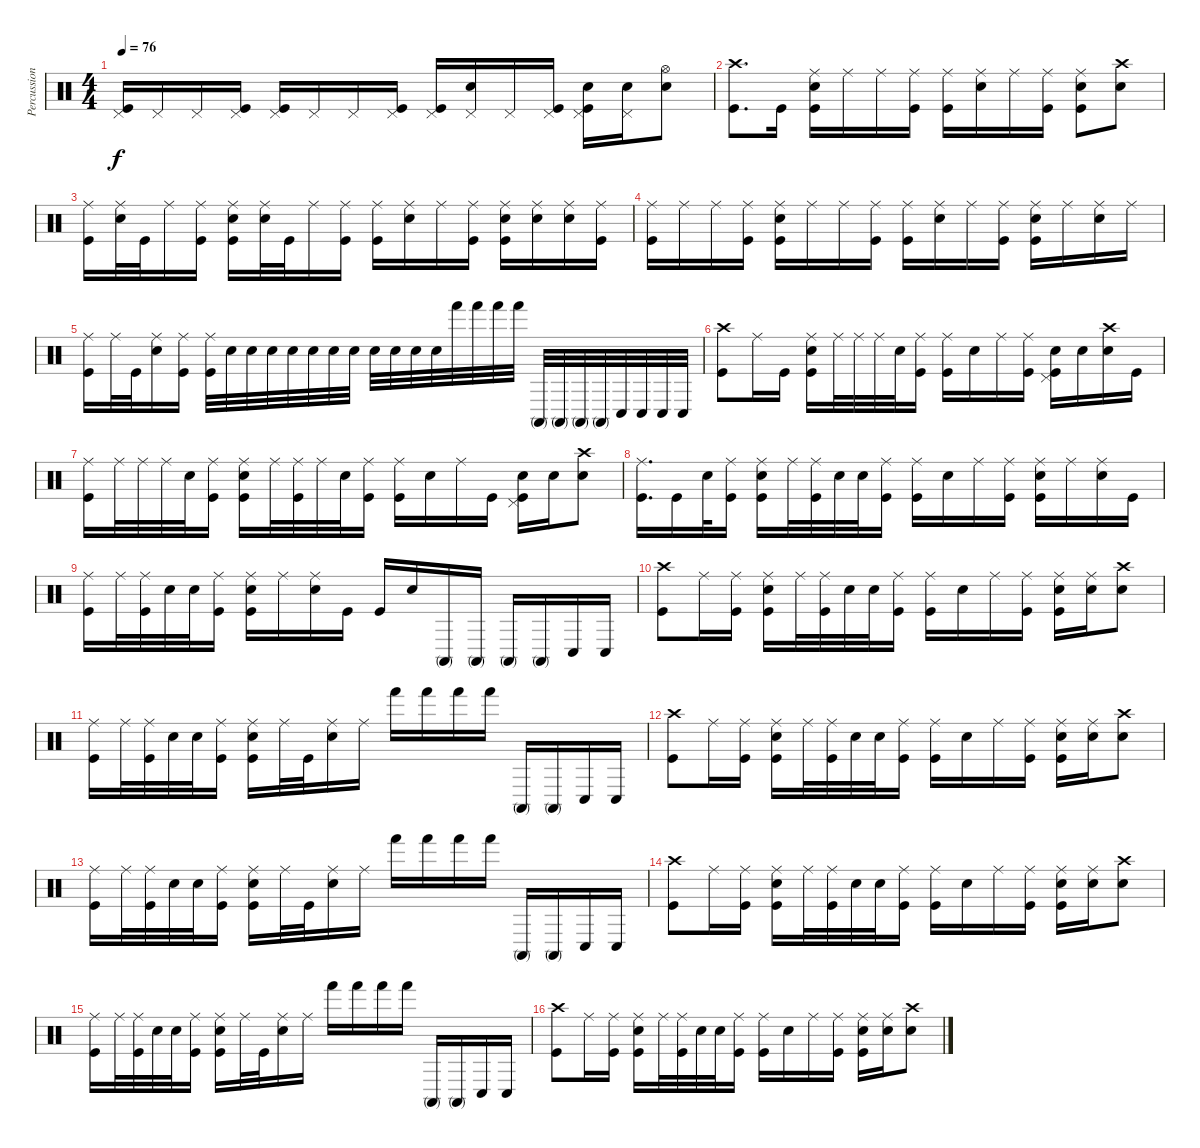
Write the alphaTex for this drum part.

\track ("Percussions" "Percussion") {instrument percussion}
\staff {score}
\articulation defaults
\ts (4 4)
\tempo 76
\clef neutral
\ks c
("Kick (hit)" "Pedal Hi-Hat (hit)").16{dy f} "Pedal Hi-Hat (hit)".16 "Pedal Hi-Hat (hit)".16 ("Pedal Hi-Hat (hit)" "Kick (hit)").16 ("Pedal Hi-Hat (hit)" "Kick (hit)").16 "Pedal Hi-Hat (hit)".16 "Pedal Hi-Hat (hit)".16 ("Pedal Hi-Hat (hit)" "Kick (hit)").16 ("Pedal Hi-Hat (hit)" "Kick (hit)").16 ("Pedal Hi-Hat (hit)" "Electric Snare (hit)").16 "Pedal Hi-Hat (hit)".16 ("Pedal Hi-Hat (hit)" "Kick (hit)").16 ("Pedal Hi-Hat (hit)" "Kick (hit)" "Electric Snare (hit)").16 ("Pedal Hi-Hat (hit)" "Electric Snare (hit)").16 ("Electric Snare (hit)" "Hi-Hat (open)").8 |
("Kick (hit)" "Crash high (hit)").8{d} "Kick (hit)".16 ("Kick (hit)" "Electric Snare (hit)" "Ride (middle)").16 "Ride (middle)".16 "Ride (middle)".16 ("Kick (hit)" "Ride (middle)").16 ("Kick (hit)" "Ride (middle)").16 ("Electric Snare (hit)" "Ride (middle)").16 "Ride (middle)".16 ("Kick (hit)" "Ride (middle)").16 ("Kick (hit)" "Electric Snare (hit)" "Ride (middle)").8 ("Electric Snare (hit)" "Crash high (hit)").8 |
("Kick (hit)" "Ride (middle)").16 ("Electric Snare (hit)" "Ride (middle)").32 "Kick (hit)".32 "Ride (middle)".16 ("Kick (hit)" "Ride (middle)").16 ("Kick (hit)" "Electric Snare (hit)" "Ride (middle)").16 ("Electric Snare (hit)" "Ride (middle)").32 "Kick (hit)".32 "Ride (middle)".16 ("Kick (hit)" "Ride (middle)").16 ("Kick (hit)" "Ride (middle)").16 ("Electric Snare (hit)" "Ride (middle)").16 "Ride (middle)".16 ("Kick (hit)" "Ride (middle)").16 ("Kick (hit)" "Electric Snare (hit)" "Ride (middle)").16 ("Electric Snare (hit)" "Ride (middle)").16 ("Electric Snare (hit)" "Ride (middle)").16 ("Kick (hit)" "Ride (middle)").16 |
("Kick (hit)" "Ride (middle)").16 "Ride (middle)".16 "Ride (middle)".16 ("Kick (hit)" "Ride (middle)").16 ("Kick (hit)" "Electric Snare (hit)" "Ride (middle)").16 "Ride (middle)".16 "Ride (middle)".16 ("Kick (hit)" "Ride (middle)").16 ("Kick (hit)" "Ride (middle)").16 ("Electric Snare (hit)" "Ride (middle)").16 "Ride (middle)".16 ("Kick (hit)" "Ride (middle)").16 ("Kick (hit)" "Electric Snare (hit)" "Ride (middle)").16 "Ride (middle)".16 ("Electric Snare (hit)" "Ride (middle)").16 "Ride (middle)".16 |
("Ride (middle)" "Kick (hit)").16 "Ride (middle)".32 "Kick (hit)".32 ("Ride (middle)" "Electric Snare (hit)").16 ("Ride (middle)" "Kick (hit)").16 ("Kick (hit)" "Ride (middle)").32 "Electric Snare (hit)".32 "Electric Snare (hit)".32 "Electric Snare (hit)".32 "Electric Snare (hit)".32 "Electric Snare (hit)".32 "Electric Snare (hit)".32 "Electric Snare (hit)".32 "Electric Snare (hit)".32 "Electric Snare (hit)".32 "Electric Snare (hit)".32 "Electric Snare (hit)".32 "Hand (hit)".32 "Hand (hit)".32 "Hand (hit)".32 "Hand (hit)".32 "Conga high (mute)".32 "Conga high (mute)".32 "Conga high (mute)".32 "Conga high (mute)".32 "Conga low (hit)".32 "Conga low (hit)".32 "Conga low (hit)".32 "Conga low (hit)".32 |
("Kick (hit)" "Crash high (hit)").8 "Ride (middle)".16 "Kick (hit)".16 ("Kick (hit)" "Ride (middle)" "Electric Snare (hit)").16 "Ride (middle)".32 "Ride (middle)".32 "Ride (middle)".32 "Electric Snare (hit)".32 ("Kick (hit)" "Ride (middle)").16 ("Kick (hit)" "Ride (middle)").16 "Electric Snare (hit)".16 "Ride (middle)".16 ("Kick (hit)" "Ride (middle)").16 ("Kick (hit)" "Electric Snare (hit)" "Pedal Hi-Hat (hit)").16 "Electric Snare (hit)".16 ("Electric Snare (hit)" "Crash high (hit)").16 "Kick (hit)".16 |
("Kick (hit)" "Ride (middle)").16 "Ride (middle)".32 "Ride (middle)".32 "Ride (middle)".32 "Electric Snare (hit)".32 ("Kick (hit)" "Ride (middle)").16 ("Kick (hit)" "Electric Snare (hit)" "Ride (middle)").16 "Ride (middle)".32 ("Kick (hit)" "Ride (middle)").32 "Ride (middle)".32 "Electric Snare (hit)".32 ("Kick (hit)" "Ride (middle)").16 ("Kick (hit)" "Ride (middle)").16 "Electric Snare (hit)".16 "Ride (middle)".16 "Kick (hit)".16 ("Kick (hit)" "Electric Snare (hit)" "Pedal Hi-Hat (hit)").16 "Electric Snare (hit)".16 ("Electric Snare (hit)" "Crash high (hit)").8 |
("Kick (hit)" "Ride (middle)").16{d} "Kick (hit)".16 "Electric Snare (hit)".32 ("Kick (hit)" "Ride (middle)").16 ("Electric Snare (hit)" "Kick (hit)" "Ride (middle)").16 "Ride (middle)".32 ("Kick (hit)" "Ride (middle)").32 "Electric Snare (hit)".32 "Electric Snare (hit)".32 ("Kick (hit)" "Ride (middle)").16 ("Kick (hit)" "Ride (middle)").16 "Electric Snare (hit)".16 "Ride (middle)".16 ("Kick (hit)" "Ride (middle)").16 ("Kick (hit)" "Ride (middle)" "Electric Snare (hit)").16 "Ride (middle)".16 ("Ride (middle)" "Electric Snare (hit)").16 "Kick (hit)".16 |
("Ride (middle)" "Kick (hit)").16 "Ride (middle)".32 ("Kick (hit)" "Ride (middle)").32 "Electric Snare (hit)".32 "Electric Snare (hit)".32 ("Kick (hit)" "Ride (middle)").16 ("Electric Snare (hit)" "Ride (middle)" "Kick (hit)").16 "Ride (middle)".16 ("Ride (middle)" "Electric Snare (hit)").16 "Kick (hit)".16 "Kick (hit)".16 "Electric Snare (hit)".16 "Conga high (mute)".16 "Conga high (mute)".16 "Conga high (mute)".16 "Conga high (mute)".16 "Conga low (hit)".16 "Conga low (hit)".16 |
("Kick (hit)" "Crash high (hit)").8 "Ride (middle)".16 ("Kick (hit)" "Ride (middle)").16 ("Electric Snare (hit)" "Kick (hit)" "Ride (middle)").16 "Ride (middle)".32 ("Kick (hit)" "Ride (middle)").32 "Electric Snare (hit)".32 "Electric Snare (hit)".32 ("Kick (hit)" "Ride (middle)").16 ("Kick (hit)" "Ride (middle)").16 "Electric Snare (hit)".16 "Ride (middle)".16 ("Kick (hit)" "Ride (middle)").16 ("Kick (hit)" "Electric Snare (hit)" "Ride (middle)").16 ("Electric Snare (hit)" "Ride (middle)").16 ("Electric Snare (hit)" "Crash high (hit)").8 |
("Kick (hit)" "Ride (middle)").16 "Ride (middle)".32 ("Kick (hit)" "Ride (middle)").32 "Electric Snare (hit)".32 "Electric Snare (hit)".32 ("Kick (hit)" "Ride (middle)").16 ("Ride (middle)" "Kick (hit)" "Electric Snare (hit)").16 "Ride (middle)".32 "Kick (hit)".32 ("Ride (middle)" "Electric Snare (hit)").16 "Ride (middle)".16 "Hand (hit)".16 "Hand (hit)".16 "Hand (hit)".16 "Hand (hit)".16 "Conga high (mute)".16 "Conga high (mute)".16 "Conga low (hit)".16 "Conga low (hit)".16 |
("Crash high (hit)" "Kick (hit)").8 "Ride (middle)".16 ("Kick (hit)" "Ride (middle)").16 ("Electric Snare (hit)" "Kick (hit)" "Ride (middle)").16 "Ride (middle)".32 ("Kick (hit)" "Ride (middle)").32 "Electric Snare (hit)".32 "Electric Snare (hit)".32 ("Kick (hit)" "Ride (middle)").16 ("Kick (hit)" "Ride (middle)").16 "Electric Snare (hit)".16 "Ride (middle)".16 ("Kick (hit)" "Ride (middle)").16 ("Kick (hit)" "Electric Snare (hit)" "Ride (middle)").16 ("Electric Snare (hit)" "Ride (middle)").16 ("Electric Snare (hit)" "Crash high (hit)").8 |
("Ride (middle)" "Kick (hit)").16 "Ride (middle)".32 ("Kick (hit)" "Ride (middle)").32 "Electric Snare (hit)".32 "Electric Snare (hit)".32 ("Kick (hit)" "Ride (middle)").16 ("Ride (middle)" "Kick (hit)" "Electric Snare (hit)").16 "Ride (middle)".32 "Kick (hit)".32 ("Ride (middle)" "Electric Snare (hit)").16 "Ride (middle)".16 "Hand (hit)".16 "Hand (hit)".16 "Hand (hit)".16 "Hand (hit)".16 "Conga high (mute)".16 "Conga high (mute)".16 "Conga low (hit)".16 "Conga low (hit)".16 |
("Crash high (hit)" "Kick (hit)").8 "Ride (middle)".16 ("Kick (hit)" "Ride (middle)").16 ("Electric Snare (hit)" "Kick (hit)" "Ride (middle)").16 "Ride (middle)".32 ("Kick (hit)" "Ride (middle)").32 "Electric Snare (hit)".32 "Electric Snare (hit)".32 ("Kick (hit)" "Ride (middle)").16 ("Kick (hit)" "Ride (middle)").16 "Electric Snare (hit)".16 "Ride (middle)".16 ("Kick (hit)" "Ride (middle)").16 ("Kick (hit)" "Electric Snare (hit)" "Ride (middle)").16 ("Electric Snare (hit)" "Ride (middle)").16 ("Electric Snare (hit)" "Crash high (hit)").8 |
("Ride (middle)" "Kick (hit)").16 "Ride (middle)".32 ("Kick (hit)" "Ride (middle)").32 "Electric Snare (hit)".32 "Electric Snare (hit)".32 ("Kick (hit)" "Ride (middle)").16 ("Ride (middle)" "Kick (hit)" "Electric Snare (hit)").16 "Ride (middle)".32 "Kick (hit)".32 ("Ride (middle)" "Electric Snare (hit)").16 "Ride (middle)".16 "Hand (hit)".16 "Hand (hit)".16 "Hand (hit)".16 "Hand (hit)".16 "Conga high (mute)".16 "Conga high (mute)".16 "Conga low (hit)".16 "Conga low (hit)".16 |
("Crash high (hit)" "Kick (hit)").8 "Ride (middle)".16 ("Kick (hit)" "Ride (middle)").16 ("Electric Snare (hit)" "Kick (hit)" "Ride (middle)").16 "Ride (middle)".32 ("Kick (hit)" "Ride (middle)").32 "Electric Snare (hit)".32 "Electric Snare (hit)".32 ("Kick (hit)" "Ride (middle)").16 ("Kick (hit)" "Ride (middle)").16 "Electric Snare (hit)".16 "Ride (middle)".16 ("Kick (hit)" "Ride (middle)").16 ("Kick (hit)" "Electric Snare (hit)" "Ride (middle)").16 ("Electric Snare (hit)" "Ride (middle)").16 ("Electric Snare (hit)" "Crash high (hit)").8
